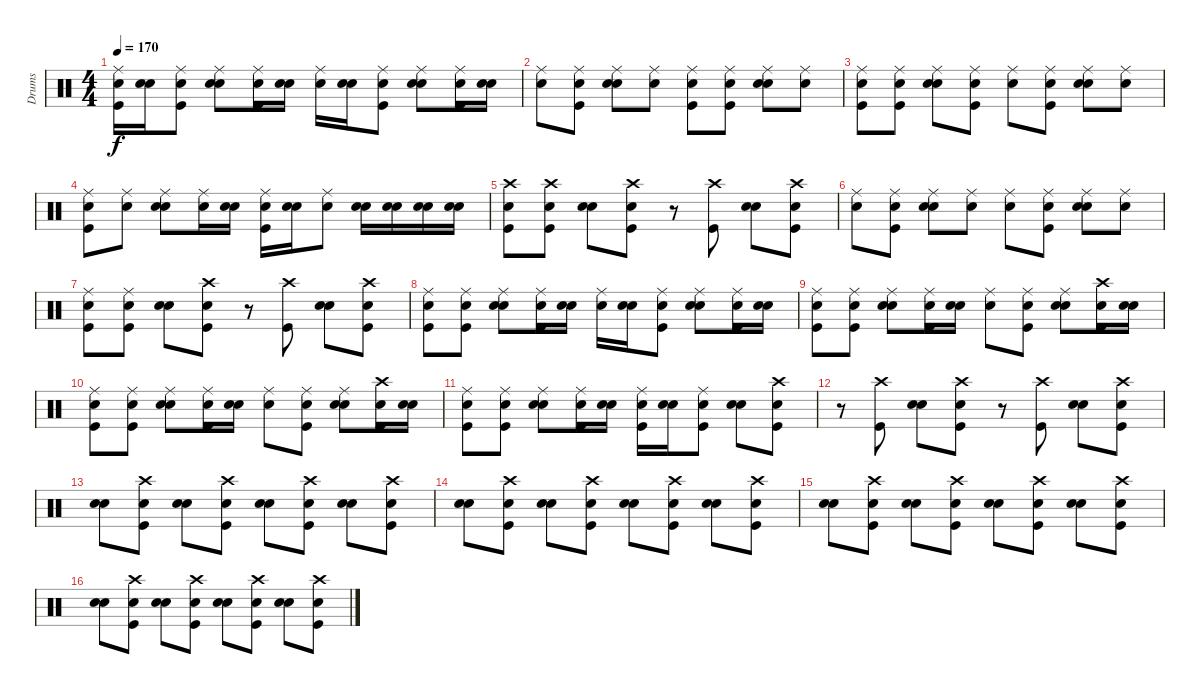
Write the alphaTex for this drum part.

\track ("Drums" "Drums") {instrument percussion}
\staff {score}
\articulation defaults
\ts (4 4)
\tempo 170
\clef neutral
\ks c
("Snare (hit)" "Kick (hit)" "Ride (middle)").16{dy f} ("Snare (hit)" "Electric Snare (hit)").16 ("Snare (hit)" "Kick (hit)" "Ride (middle)").8 ("Snare (hit)" "Electric Snare (hit)" "Ride (middle)").8 ("Snare (hit)" "Kick (hit)" "Ride (middle)").16 ("Snare (hit)" "Electric Snare (hit)").16 ("Snare (hit)" "Ride (middle)").16 ("Snare (hit)" "Electric Snare (hit)").16 ("Snare (hit)" "Kick (hit)" "Ride (middle)").8 ("Snare (hit)" "Electric Snare (hit)" "Ride (middle)").8 ("Snare (hit)" "Kick (hit)" "Ride (middle)").16 ("Snare (hit)" "Electric Snare (hit)").16 |
("Snare (hit)" "Ride (middle)").8 ("Snare (hit)" "Kick (hit)" "Ride (middle)").8 ("Snare (hit)" "Electric Snare (hit)" "Ride (middle)").8 ("Snare (hit)" "Ride (middle)").8 ("Snare (hit)" "Kick (hit)" "Ride (middle)").8 ("Snare (hit)" "Kick (hit)" "Ride (middle)").8 ("Snare (hit)" "Electric Snare (hit)" "Ride (middle)").8 ("Snare (hit)" "Ride (middle)").8 |
("Snare (hit)" "Kick (hit)" "Ride (middle)").8 ("Snare (hit)" "Kick (hit)" "Ride (middle)").8 ("Snare (hit)" "Electric Snare (hit)" "Ride (middle)").8 ("Snare (hit)" "Kick (hit)" "Ride (middle)").8 ("Snare (hit)" "Ride (middle)").8 ("Snare (hit)" "Kick (hit)" "Ride (middle)").8 ("Snare (hit)" "Electric Snare (hit)" "Ride (middle)").8 ("Snare (hit)" "Ride (middle)").8 |
("Snare (hit)" "Kick (hit)" "Ride (middle)").8 ("Snare (hit)" "Ride (middle)").8 ("Snare (hit)" "Electric Snare (hit)" "Ride (middle)").8 ("Snare (hit)" "Ride (middle)").16 ("Snare (hit)" "Electric Snare (hit)").16 ("Snare (hit)" "Kick (hit)" "Ride (middle)").16 ("Snare (hit)" "Electric Snare (hit)").16 ("Snare (hit)" "Ride (middle)").8 ("Snare (hit)" "Electric Snare (hit)").16 ("Snare (hit)" "Electric Snare (hit)").16 ("Snare (hit)" "Electric Snare (hit)").16 ("Snare (hit)" "Electric Snare (hit)").16 |
("Snare (hit)" "Kick (hit)" "Crash high (hit)").8 ("Snare (hit)" "Kick (hit)" "Crash high (hit)").8 ("Snare (hit)" "Electric Snare (hit)").8 ("Snare (hit)" "Kick (hit)" "Crash high (hit)").8 r.8 ("Kick (hit)" "Crash high (hit)").8 ("Snare (hit)" "Electric Snare (hit)").8 ("Snare (hit)" "Kick (hit)" "Crash high (hit)").8 |
("Snare (hit)" "Ride (middle)").8 ("Snare (hit)" "Kick (hit)" "Ride (middle)").8 ("Snare (hit)" "Electric Snare (hit)" "Ride (middle)").8 ("Snare (hit)" "Ride (middle)").8 ("Snare (hit)" "Ride (middle)").8 ("Snare (hit)" "Kick (hit)" "Ride (middle)").8 ("Snare (hit)" "Electric Snare (hit)" "Ride (middle)").8 ("Snare (hit)" "Ride (middle)").8 |
("Snare (hit)" "Kick (hit)" "Ride (middle)").8 ("Snare (hit)" "Kick (hit)" "Ride (middle)").8 ("Snare (hit)" "Electric Snare (hit)").8 ("Snare (hit)" "Kick (hit)" "Crash high (hit)").8 r.8 ("Kick (hit)" "Crash high (hit)").8 ("Snare (hit)" "Electric Snare (hit)").8 ("Snare (hit)" "Kick (hit)" "Crash high (hit)").8 |
("Snare (hit)" "Kick (hit)" "Ride (middle)").8 ("Snare (hit)" "Kick (hit)" "Ride (middle)").8 ("Snare (hit)" "Electric Snare (hit)" "Ride (middle)").8 ("Snare (hit)" "Kick (hit)" "Ride (middle)").16 ("Snare (hit)" "Electric Snare (hit)").16 ("Snare (hit)" "Ride (middle)").16 ("Snare (hit)" "Electric Snare (hit)").16 ("Snare (hit)" "Kick (hit)" "Ride (middle)").8 ("Snare (hit)" "Electric Snare (hit)" "Ride (middle)").8 ("Snare (hit)" "Kick (hit)" "Ride (middle)").16 ("Snare (hit)" "Electric Snare (hit)").16 |
("Snare (hit)" "Kick (hit)" "Ride (middle)").8 ("Snare (hit)" "Kick (hit)" "Ride (middle)").8 ("Snare (hit)" "Electric Snare (hit)" "Ride (middle)").8 ("Snare (hit)" "Kick (hit)" "Ride (middle)").16 ("Snare (hit)" "Electric Snare (hit)").16 ("Snare (hit)" "Ride (middle)").8 ("Snare (hit)" "Kick (hit)" "Ride (middle)").8 ("Snare (hit)" "Electric Snare (hit)" "Ride (middle)").8 ("Snare (hit)" "Kick (hit)" "Crash high (hit)").16 ("Snare (hit)" "Electric Snare (hit)").16 |
("Snare (hit)" "Kick (hit)" "Ride (middle)").8 ("Snare (hit)" "Kick (hit)" "Ride (middle)").8 ("Snare (hit)" "Electric Snare (hit)" "Ride (middle)").8 ("Snare (hit)" "Kick (hit)" "Ride (middle)").16 ("Snare (hit)" "Electric Snare (hit)").16 ("Snare (hit)" "Ride (middle)").8 ("Snare (hit)" "Kick (hit)" "Ride (middle)").8 ("Snare (hit)" "Electric Snare (hit)" "Ride (middle)").8 ("Snare (hit)" "Kick (hit)" "Crash high (hit)").16 ("Snare (hit)" "Electric Snare (hit)").16 |
("Snare (hit)" "Kick (hit)" "Ride (middle)").8 ("Snare (hit)" "Kick (hit)" "Ride (middle)").8 ("Snare (hit)" "Electric Snare (hit)" "Ride (middle)").8 ("Snare (hit)" "Kick (hit)" "Ride (middle)").16 ("Snare (hit)" "Electric Snare (hit)").16 ("Snare (hit)" "Kick (hit)" "Ride (middle)").16 ("Snare (hit)" "Electric Snare (hit)").16 ("Snare (hit)" "Kick (hit)" "Ride (middle)").8 ("Snare (hit)" "Electric Snare (hit)").8 ("Snare (hit)" "Kick (hit)" "Crash high (hit)").8 |
r.8 ("Kick (hit)" "Crash high (hit)").8 ("Snare (hit)" "Electric Snare (hit)").8 ("Snare (hit)" "Kick (hit)" "Crash high (hit)").8 r.8 ("Kick (hit)" "Crash high (hit)").8 ("Snare (hit)" "Electric Snare (hit)").8 ("Snare (hit)" "Kick (hit)" "Crash high (hit)").8 |
("Snare (hit)" "Electric Snare (hit)").8 ("Snare (hit)" "Kick (hit)" "Crash high (hit)").8 ("Snare (hit)" "Electric Snare (hit)").8 ("Snare (hit)" "Kick (hit)" "Crash high (hit)").8 ("Snare (hit)" "Electric Snare (hit)").8 ("Snare (hit)" "Kick (hit)" "Crash high (hit)").8 ("Snare (hit)" "Electric Snare (hit)").8 ("Snare (hit)" "Kick (hit)" "Crash high (hit)").8 |
("Snare (hit)" "Electric Snare (hit)").8 ("Snare (hit)" "Kick (hit)" "Crash high (hit)").8 ("Snare (hit)" "Electric Snare (hit)").8 ("Snare (hit)" "Kick (hit)" "Crash high (hit)").8 ("Snare (hit)" "Electric Snare (hit)").8 ("Snare (hit)" "Kick (hit)" "Crash high (hit)").8 ("Snare (hit)" "Electric Snare (hit)").8 ("Snare (hit)" "Kick (hit)" "Crash high (hit)").8 |
("Snare (hit)" "Electric Snare (hit)").8 ("Snare (hit)" "Kick (hit)" "Crash high (hit)").8 ("Snare (hit)" "Electric Snare (hit)").8 ("Snare (hit)" "Kick (hit)" "Crash high (hit)").8 ("Snare (hit)" "Electric Snare (hit)").8 ("Snare (hit)" "Kick (hit)" "Crash high (hit)").8 ("Snare (hit)" "Electric Snare (hit)").8 ("Snare (hit)" "Kick (hit)" "Crash high (hit)").8 |
("Snare (hit)" "Electric Snare (hit)").8 ("Snare (hit)" "Kick (hit)" "Crash high (hit)").8 ("Snare (hit)" "Electric Snare (hit)").8 ("Snare (hit)" "Kick (hit)" "Crash high (hit)").8 ("Snare (hit)" "Electric Snare (hit)").8 ("Snare (hit)" "Kick (hit)" "Crash high (hit)").8 ("Snare (hit)" "Electric Snare (hit)").8 ("Snare (hit)" "Kick (hit)" "Crash high (hit)").8
